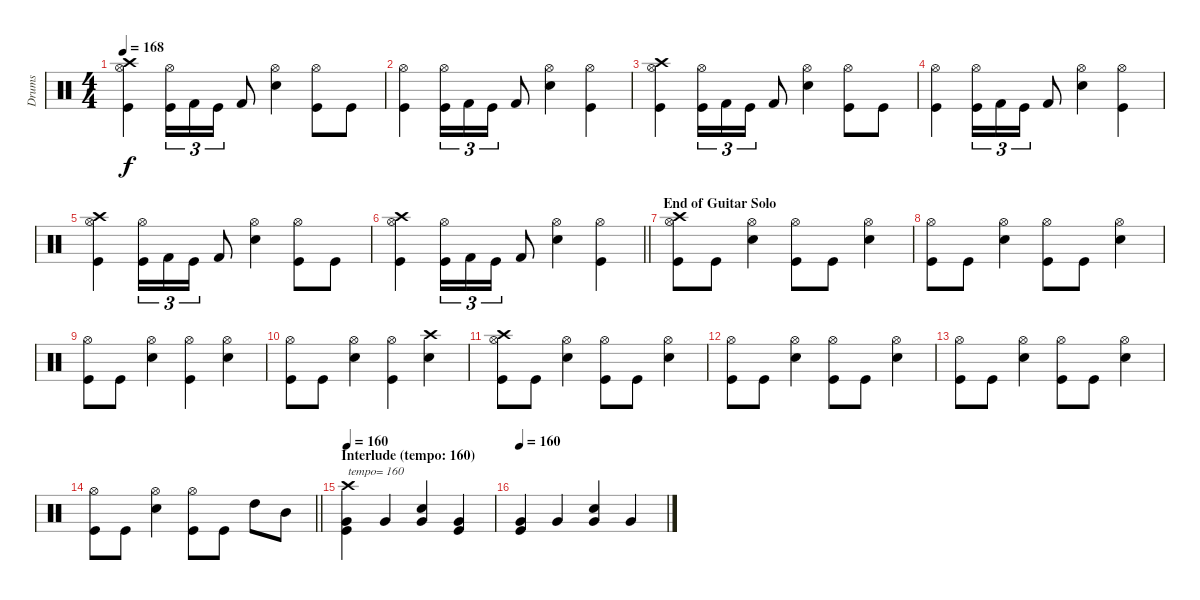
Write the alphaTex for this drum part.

\track ("Drums" "Drums") {instrument percussion}
\staff {score}
\articulation defaults
\ts (4 4)
\tempo 168
\clef neutral
\ks c
("Crash high (hit)" "Hi-Hat (open)" "Kick (hit)").4{dy f} ("Hi-Hat (open)" "Kick (hit)").16{tu (3 2)} "Kick (hit) 2".16{tu (3 2)} "Kick (hit)".16{tu (3 2)} "Kick (hit) 2".8 ("Hi-Hat (open)" "Snare (hit) 2").4 ("Hi-Hat (open)" "Kick (hit)").8 "Kick (hit)".8 |
("Hi-Hat (open)" "Kick (hit)").4 ("Hi-Hat (open)" "Kick (hit)").16{tu (3 2)} "Kick (hit) 2".16{tu (3 2)} "Kick (hit)".16{tu (3 2)} "Kick (hit) 2".8 ("Hi-Hat (open)" "Snare (hit) 2").4 ("Hi-Hat (open)" "Kick (hit)").4 |
("Crash high (hit)" "Hi-Hat (open)" "Kick (hit)").4 ("Hi-Hat (open)" "Kick (hit)").16{tu (3 2)} "Kick (hit) 2".16{tu (3 2)} "Kick (hit)".16{tu (3 2)} "Kick (hit) 2".8 ("Hi-Hat (open)" "Snare (hit) 2").4 ("Hi-Hat (open)" "Kick (hit)").8 "Kick (hit)".8 |
("Hi-Hat (open)" "Kick (hit)").4 ("Hi-Hat (open)" "Kick (hit)").16{tu (3 2)} "Kick (hit) 2".16{tu (3 2)} "Kick (hit)".16{tu (3 2)} "Kick (hit) 2".8 ("Hi-Hat (open)" "Snare (hit) 2").4 ("Hi-Hat (open)" "Kick (hit)").4 |
("Crash high (hit)" "Hi-Hat (open)" "Kick (hit)").4 ("Hi-Hat (open)" "Kick (hit)").16{tu (3 2)} "Kick (hit) 2".16{tu (3 2)} "Kick (hit)".16{tu (3 2)} "Kick (hit) 2".8 ("Hi-Hat (open)" "Snare (hit) 2").4 ("Hi-Hat (open)" "Kick (hit)").8 "Kick (hit)".8 |
\barLineRight lightlight
("Crash high (hit)" "Hi-Hat (open)" "Kick (hit)").4 ("Hi-Hat (open)" "Kick (hit)").16{tu (3 2)} "Kick (hit) 2".16{tu (3 2)} "Kick (hit)".16{tu (3 2)} "Kick (hit) 2".8 ("Hi-Hat (open)" "Snare (hit) 2").4 ("Hi-Hat (open)" "Kick (hit)").4 |
\section ("" "End of Guitar Solo")
("Crash high (hit)" "Hi-Hat (open)" "Kick (hit)").8 "Kick (hit)".8 ("Hi-Hat (open)" "Snare (hit) 2").4 ("Hi-Hat (open)" "Kick (hit)").8 "Kick (hit)".8 ("Hi-Hat (open)" "Snare (hit) 2").4 |
("Hi-Hat (open)" "Kick (hit)").8 "Kick (hit)".8 ("Hi-Hat (open)" "Snare (hit) 2").4 ("Hi-Hat (open)" "Kick (hit)").8 "Kick (hit)".8 ("Hi-Hat (open)" "Snare (hit) 2").4 |
("Hi-Hat (open)" "Kick (hit)").8 "Kick (hit)".8 ("Hi-Hat (open)" "Snare (hit) 2").4 ("Hi-Hat (open)" "Kick (hit)").4 ("Hi-Hat (open)" "Snare (hit) 2").4 |
("Hi-Hat (open)" "Kick (hit)").8 "Kick (hit)".8 ("Hi-Hat (open)" "Snare (hit) 2").4 ("Hi-Hat (open)" "Kick (hit)").4 ("Crash high (hit)" "Snare (hit) 2").4 |
("Crash high (hit)" "Hi-Hat (open)" "Kick (hit)").8 "Kick (hit)".8 ("Hi-Hat (open)" "Snare (hit) 2").4 ("Hi-Hat (open)" "Kick (hit)").8 "Kick (hit)".8 ("Hi-Hat (open)" "Snare (hit) 2").4 |
("Hi-Hat (open)" "Kick (hit)").8 "Kick (hit)".8 ("Hi-Hat (open)" "Snare (hit) 2").4 ("Hi-Hat (open)" "Kick (hit)").8 "Kick (hit)".8 ("Hi-Hat (open)" "Snare (hit) 2").4 |
("Hi-Hat (open)" "Kick (hit)").8 "Kick (hit)".8 ("Hi-Hat (open)" "Snare (hit) 2").4 ("Hi-Hat (open)" "Kick (hit)").8 "Kick (hit)".8 ("Hi-Hat (open)" "Snare (hit) 2").4 |
\barLineRight lightlight
("Hi-Hat (open)" "Kick (hit)").8 "Kick (hit)".8 ("Hi-Hat (open)" "Snare (hit) 2").4 ("Hi-Hat (open)" "Kick (hit)").8 "Kick (hit)".8 "High Tom (hit)".8 "Mid Tom (hit)".8 |
\section ("" "Interlude (tempo: 160)")
\tempo 160
("Crash high (hit)" "Very Low Tom (hit)" "Kick (hit)").4{txt "tempo= 160"} "Very Low Tom (hit)".4 ("Very Low Tom (hit)" "Snare (hit) 2").4 ("Very Low Tom (hit)" "Kick (hit)").4 |
\tempo 160
("Very Low Tom (hit)" "Kick (hit)").4 "Very Low Tom (hit)".4 ("Very Low Tom (hit)" "Snare (hit) 2").4 "Very Low Tom (hit)".4
